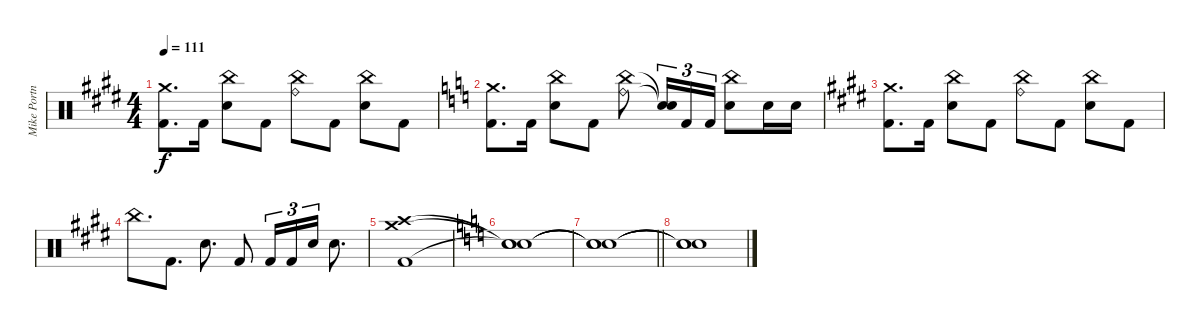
\track ("Mike Portnoy - Drums" "Mike Portn") {instrument percussion}
\staff {score}
\articulation defaults
\ts (4 4)
\tempo 111
\clef neutral
\ks c#minor
("Kick (hit) 2" "Crash medium (hit)").8{d dy f} "Kick (hit) 2".16 ("Electric Snare (hit)" "China (hit)").8 "Kick (hit) 2".8 ("Ride (bell)" "China (hit)").8 "Kick (hit) 2".8 ("Electric Snare (hit)" "China (hit)").8 "Kick (hit) 2".8 |
\ks c
("Kick (hit) 2" "Crash medium (hit)").8{d} "Kick (hit) 2".16 ("Electric Snare (hit)" "China (hit)").8 "Kick (hit) 2".8 ("Ride (bell)" "China (hit)").8 ("Snare (hit)"{t} "Snare (hit)"{t}).16{tu (3 2)} "Kick (hit) 2".16{tu (3 2)} "Kick (hit) 2".16{tu (3 2)} ("Electric Snare (hit)" "China (hit)").8 "Electric Snare (hit)".16 "Electric Snare (hit)".16 |
\ks c#minor
("Kick (hit) 2" "Crash medium (hit)").8{d} "Kick (hit) 2".16 ("Electric Snare (hit)" "China (hit)").8 "Kick (hit) 2".8 ("Ride (bell)" "China (hit)").8 "Kick (hit) 2".8 ("Electric Snare (hit)" "China (hit)").8 "Kick (hit) 2".8 |
"China (hit)".8{d} "Kick (hit) 2".8{d} "Electric Snare (hit)".8{d} "Kick (hit) 2".8 "Kick (hit) 2".16{tu (3 2)} "Kick (hit) 2".16{tu (3 2)} "Electric Snare (hit)".16{tu (3 2)} "Electric Snare (hit)".8{d} |
("Crash high (hit)" "Crash medium (hit)" "Kick (hit) 2").1 |
\ks c
("Snare (hit)"{t} "Snare (hit)"{t} "Snare (hit)"{t}).1 |
\barLineRight lightlight
("Snare (hit)"{t} "Snare (hit)"{t} "Snare (hit)"{t}).1 |
("Snare (hit)"{t} "Snare (hit)"{t} "Snare (hit)"{t}).1
